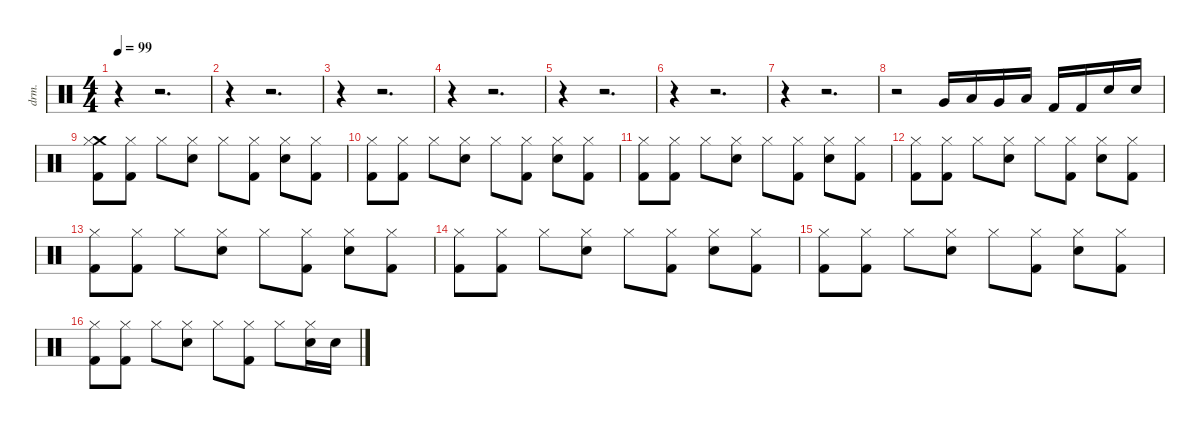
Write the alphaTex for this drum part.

\defaultSystemsLayout 4
\hideDynamics
\bracketExtendMode nobrackets
\otherSystemsTrackNameOrientation horizontal
\track ("Drum" "drm.") {instrument percussion}
\staff {score}
\articulation defaults
\ts (4 4)
\tempo 99
\clef neutral
\ks c
r.4{dy f} r.2{d} |
r.4 r.2{d} |
r.4 r.2{d} |
r.4 r.2{d} |
r.4 r.2{d} |
r.4 r.2{d} |
r.4 r.2{d} |
r.2 "Very Low Tom (hit)".16 "Low Floor Tom (hit)".16 "Very Low Tom (hit)".16 "Low Floor Tom (hit)".16 "Kick (hit) 2".16 "Kick (hit) 2".16 "Snare (hit) 2".16 "Snare (hit) 2".16 |
("Crash medium (hit)" "Hi-Hat (closed)" "Kick (hit) 2").8 ("Hi-Hat (closed)" "Kick (hit) 2").8 "Hi-Hat (closed)".8 ("Hi-Hat (closed)" "Snare (hit) 2").8 "Hi-Hat (closed)".8 ("Hi-Hat (closed)" "Kick (hit) 2").8 ("Hi-Hat (closed)" "Snare (hit) 2").8 ("Hi-Hat (closed)" "Kick (hit) 2").8 |
("Hi-Hat (closed)" "Kick (hit) 2").8 ("Hi-Hat (closed)" "Kick (hit) 2").8 "Hi-Hat (closed)".8 ("Hi-Hat (closed)" "Snare (hit) 2").8 "Hi-Hat (closed)".8 ("Hi-Hat (closed)" "Kick (hit) 2").8 ("Hi-Hat (closed)" "Snare (hit) 2").8 ("Hi-Hat (closed)" "Kick (hit) 2").8 |
("Hi-Hat (closed)" "Kick (hit) 2").8 ("Hi-Hat (closed)" "Kick (hit) 2").8 "Hi-Hat (closed)".8 ("Hi-Hat (closed)" "Snare (hit) 2").8 "Hi-Hat (closed)".8 ("Hi-Hat (closed)" "Kick (hit) 2").8 ("Hi-Hat (closed)" "Snare (hit) 2").8 ("Hi-Hat (closed)" "Kick (hit) 2").8 |
("Hi-Hat (closed)" "Kick (hit) 2").8 ("Hi-Hat (closed)" "Kick (hit) 2").8 "Hi-Hat (closed)".8 ("Hi-Hat (closed)" "Snare (hit) 2").8 "Hi-Hat (closed)".8 ("Hi-Hat (closed)" "Kick (hit) 2").8 ("Hi-Hat (closed)" "Snare (hit) 2").8 ("Hi-Hat (closed)" "Kick (hit) 2").8 |
("Hi-Hat (closed)" "Kick (hit) 2").8 ("Hi-Hat (closed)" "Kick (hit) 2").8 "Hi-Hat (closed)".8 ("Hi-Hat (closed)" "Snare (hit) 2").8 "Hi-Hat (closed)".8 ("Hi-Hat (closed)" "Kick (hit) 2").8 ("Hi-Hat (closed)" "Snare (hit) 2").8 ("Hi-Hat (closed)" "Kick (hit) 2").8 |
("Hi-Hat (closed)" "Kick (hit) 2").8 ("Hi-Hat (closed)" "Kick (hit) 2").8 "Hi-Hat (closed)".8 ("Hi-Hat (closed)" "Snare (hit) 2").8 "Hi-Hat (closed)".8 ("Hi-Hat (closed)" "Kick (hit) 2").8 ("Hi-Hat (closed)" "Snare (hit) 2").8 ("Hi-Hat (closed)" "Kick (hit) 2").8 |
("Hi-Hat (closed)" "Kick (hit) 2").8 ("Hi-Hat (closed)" "Kick (hit) 2").8 "Hi-Hat (closed)".8 ("Hi-Hat (closed)" "Snare (hit) 2").8 "Hi-Hat (closed)".8 ("Hi-Hat (closed)" "Kick (hit) 2").8 ("Hi-Hat (closed)" "Snare (hit) 2").8 ("Hi-Hat (closed)" "Kick (hit) 2").8 |
("Hi-Hat (closed)" "Kick (hit) 2").8 ("Hi-Hat (closed)" "Kick (hit) 2").8 "Hi-Hat (closed)".8 ("Hi-Hat (closed)" "Snare (hit) 2").8 "Hi-Hat (closed)".8 ("Hi-Hat (closed)" "Kick (hit) 2").8 "Hi-Hat (closed)".8 ("Hi-Hat (closed)" "Snare (hit) 2").16 "Snare (hit) 2".16
